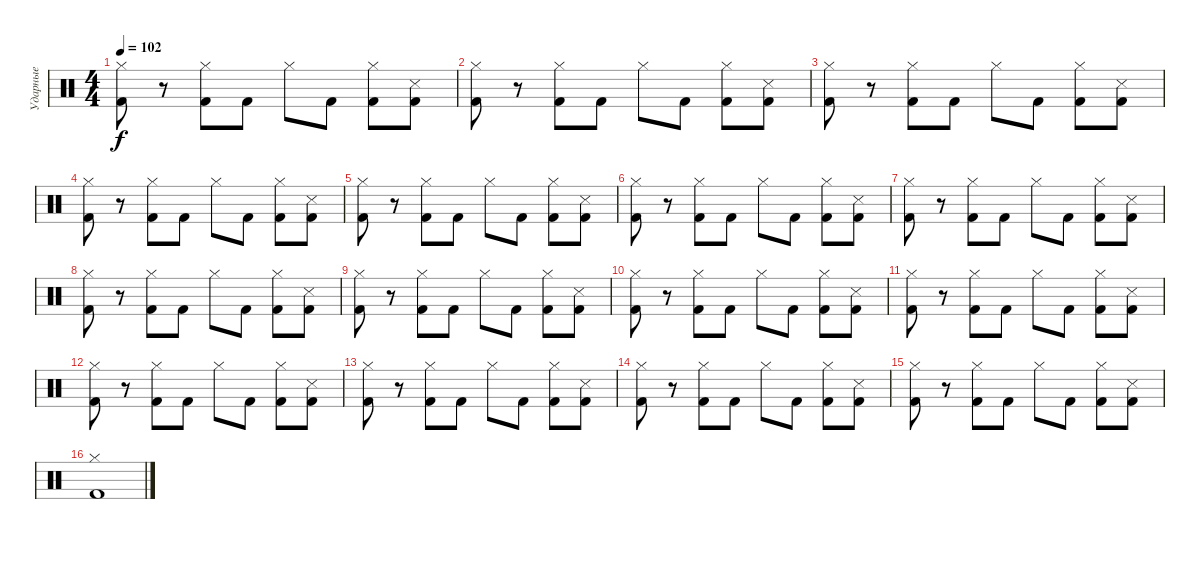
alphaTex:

\track ("Ударные" "Ударные") {instrument percussion}
\staff {score}
\articulation defaults
\ts (4 4)
\tempo 102
\clef neutral
\ks c
("Hi-Hat (closed)" "Kick (hit) 2").8{dy f} r.8 ("Hi-Hat (closed)" "Kick (hit) 2").8 "Kick (hit) 2".8 "Hi-Hat (closed)".8 "Kick (hit) 2".8 ("Hi-Hat (closed)" "Kick (hit) 2").8 ("Metronome (hit)" "Kick (hit) 2").8 |
("Hi-Hat (closed)" "Kick (hit) 2").8 r.8 ("Hi-Hat (closed)" "Kick (hit) 2").8 "Kick (hit) 2".8 "Hi-Hat (closed)".8 "Kick (hit) 2".8 ("Hi-Hat (closed)" "Kick (hit) 2").8 ("Metronome (hit)" "Kick (hit) 2").8 |
("Hi-Hat (closed)" "Kick (hit) 2").8 r.8 ("Hi-Hat (closed)" "Kick (hit) 2").8 "Kick (hit) 2".8 "Hi-Hat (closed)".8 "Kick (hit) 2".8 ("Hi-Hat (closed)" "Kick (hit) 2").8 ("Metronome (hit)" "Kick (hit) 2").8 |
("Hi-Hat (closed)" "Kick (hit) 2").8 r.8 ("Hi-Hat (closed)" "Kick (hit) 2").8 "Kick (hit) 2".8 "Hi-Hat (closed)".8 "Kick (hit) 2".8 ("Hi-Hat (closed)" "Kick (hit) 2").8 ("Metronome (hit)" "Kick (hit) 2").8 |
("Hi-Hat (closed)" "Kick (hit) 2").8 r.8 ("Hi-Hat (closed)" "Kick (hit) 2").8 "Kick (hit) 2".8 "Hi-Hat (closed)".8 "Kick (hit) 2".8 ("Hi-Hat (closed)" "Kick (hit) 2").8 ("Metronome (hit)" "Kick (hit) 2").8 |
("Hi-Hat (closed)" "Kick (hit) 2").8 r.8 ("Hi-Hat (closed)" "Kick (hit) 2").8 "Kick (hit) 2".8 "Hi-Hat (closed)".8 "Kick (hit) 2".8 ("Hi-Hat (closed)" "Kick (hit) 2").8 ("Metronome (hit)" "Kick (hit) 2").8 |
("Hi-Hat (closed)" "Kick (hit) 2").8 r.8 ("Hi-Hat (closed)" "Kick (hit) 2").8 "Kick (hit) 2".8 "Hi-Hat (closed)".8 "Kick (hit) 2".8 ("Hi-Hat (closed)" "Kick (hit) 2").8 ("Metronome (hit)" "Kick (hit) 2").8 |
("Hi-Hat (closed)" "Kick (hit) 2").8 r.8 ("Hi-Hat (closed)" "Kick (hit) 2").8 "Kick (hit) 2".8 "Hi-Hat (closed)".8 "Kick (hit) 2".8 ("Hi-Hat (closed)" "Kick (hit) 2").8 ("Metronome (hit)" "Kick (hit) 2").8 |
("Hi-Hat (closed)" "Kick (hit) 2").8 r.8 ("Hi-Hat (closed)" "Kick (hit) 2").8 "Kick (hit) 2".8 "Hi-Hat (closed)".8 "Kick (hit) 2".8 ("Hi-Hat (closed)" "Kick (hit) 2").8 ("Metronome (hit)" "Kick (hit) 2").8 |
("Hi-Hat (closed)" "Kick (hit) 2").8 r.8 ("Hi-Hat (closed)" "Kick (hit) 2").8 "Kick (hit) 2".8 "Hi-Hat (closed)".8 "Kick (hit) 2".8 ("Hi-Hat (closed)" "Kick (hit) 2").8 ("Metronome (hit)" "Kick (hit) 2").8 |
("Hi-Hat (closed)" "Kick (hit) 2").8 r.8 ("Hi-Hat (closed)" "Kick (hit) 2").8 "Kick (hit) 2".8 "Hi-Hat (closed)".8 "Kick (hit) 2".8 ("Hi-Hat (closed)" "Kick (hit) 2").8 ("Metronome (hit)" "Kick (hit) 2").8 |
("Hi-Hat (closed)" "Kick (hit) 2").8 r.8 ("Hi-Hat (closed)" "Kick (hit) 2").8 "Kick (hit) 2".8 "Hi-Hat (closed)".8 "Kick (hit) 2".8 ("Hi-Hat (closed)" "Kick (hit) 2").8 ("Metronome (hit)" "Kick (hit) 2").8 |
("Hi-Hat (closed)" "Kick (hit) 2").8 r.8 ("Hi-Hat (closed)" "Kick (hit) 2").8 "Kick (hit) 2".8 "Hi-Hat (closed)".8 "Kick (hit) 2".8 ("Hi-Hat (closed)" "Kick (hit) 2").8 ("Metronome (hit)" "Kick (hit) 2").8 |
("Hi-Hat (closed)" "Kick (hit) 2").8 r.8 ("Hi-Hat (closed)" "Kick (hit) 2").8 "Kick (hit) 2".8 "Hi-Hat (closed)".8 "Kick (hit) 2".8 ("Hi-Hat (closed)" "Kick (hit) 2").8 ("Metronome (hit)" "Kick (hit) 2").8 |
("Hi-Hat (closed)" "Kick (hit) 2").8 r.8 ("Hi-Hat (closed)" "Kick (hit) 2").8 "Kick (hit) 2".8 "Hi-Hat (closed)".8 "Kick (hit) 2".8 ("Hi-Hat (closed)" "Kick (hit) 2").8 ("Metronome (hit)" "Kick (hit) 2").8 |
("Hi-Hat (closed)" "Kick (hit) 2").1
